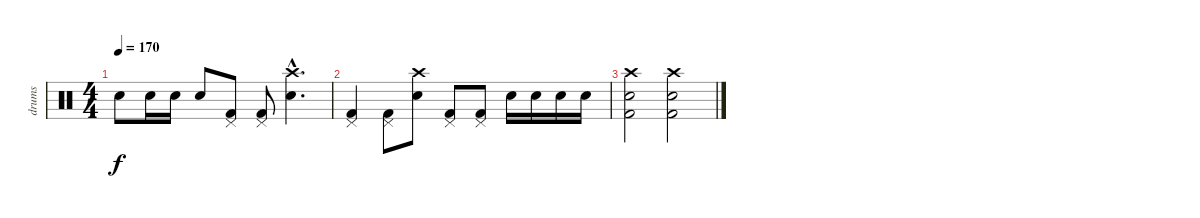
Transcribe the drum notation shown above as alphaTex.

\track ("drums" "drums") {instrument percussion}
\staff {score}
\articulation defaults
\ts (4 4)
\tempo 170
\clef neutral
\ks c "Electric Snare (hit)".8{dy f} "Electric Snare (hit)".16 "Electric Snare (hit)".16 "Electric Snare (hit)".8
("Pedal Hi-Hat (hit)" "Kick (hit) 2").8 ("Pedal Hi-Hat (hit)" "Kick (hit) 2").8 ("Crash high (hit)"{hac} "Electric Snare (hit)"{hac}).4{d} |
("Pedal Hi-Hat (hit)" "Kick (hit) 2").4 ("Pedal Hi-Hat (hit)" "Kick (hit) 2").8 ("Crash high (hit)" "Electric Snare (hit)").8 ("Pedal Hi-Hat (hit)" "Kick (hit) 2").8 ("Pedal Hi-Hat (hit)" "Kick (hit) 2").8 "Electric Snare (hit)".16 "Electric Snare (hit)".16 "Electric Snare (hit)".16 "Electric Snare (hit)".16 |
("Crash high (hit)" "Kick (hit) 2" "Electric Snare (hit)").2 ("Crash high (hit)" "Kick (hit) 2" "Electric Snare (hit)").2
